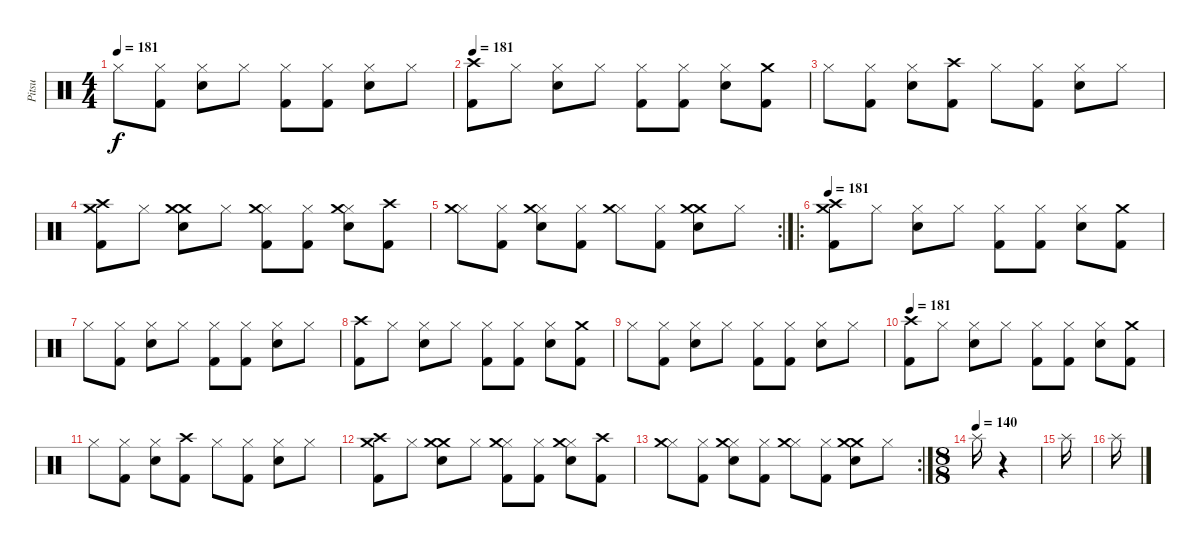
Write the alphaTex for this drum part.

\track ("Pitsu" "Pitsu") {instrument percussion}
\staff {score}
\articulation defaults
\ts (4 4)
\tempo 181
\clef neutral
\ks c "Hi-Hat (closed)".8{dy f}
("Hi-Hat (closed)" "Kick (hit) 2").8 ("Hi-Hat (closed)" "Electric Snare (hit)").8 "Hi-Hat (closed)".8 ("Hi-Hat (closed)" "Kick (hit) 2").8 ("Hi-Hat (closed)" "Kick (hit) 2").8 ("Hi-Hat (closed)" "Electric Snare (hit)").8 "Hi-Hat (closed)".8 |
\tempo 181
("Crash high (hit)" "Kick (hit) 2").8 "Hi-Hat (closed)".8 ("Hi-Hat (closed)" "Electric Snare (hit)").8 "Hi-Hat (closed)".8 ("Hi-Hat (closed)" "Kick (hit) 2").8 ("Hi-Hat (closed)" "Kick (hit) 2").8 ("Hi-Hat (closed)" "Electric Snare (hit)").8 ("Crash medium (hit)" "Kick (hit) 2").8 |
"Hi-Hat (closed)".8 ("Hi-Hat (closed)" "Kick (hit) 2").8 ("Hi-Hat (closed)" "Electric Snare (hit)").8 ("Crash high (hit)" "Kick (hit) 2").8 "Hi-Hat (closed)".8 ("Hi-Hat (closed)" "Kick (hit) 2").8 ("Hi-Hat (closed)" "Electric Snare (hit)").8 "Hi-Hat (closed)".8 |
("Crash high (hit)" "Crash medium (hit)" "Kick (hit) 2").8 "Hi-Hat (closed)".8 ("Crash medium (hit)" "Crash medium (hit)" "Electric Snare (hit)").8 "Hi-Hat (closed)".8 ("Hi-Hat (closed)" "Crash medium (hit)" "Kick (hit) 2").8 ("Hi-Hat (closed)" "Kick (hit) 2").8 ("Hi-Hat (closed)" "Crash medium (hit)" "Electric Snare (hit)").8 ("Crash high (hit)" "Kick (hit) 2").8 |
\rc 2
("Hi-Hat (closed)" "Crash medium (hit)").8 ("Hi-Hat (closed)" "Kick (hit) 2").8 ("Hi-Hat (closed)" "Crash medium (hit)" "Electric Snare (hit)").8 ("Hi-Hat (closed)" "Kick (hit) 2").8 ("Hi-Hat (closed)" "Crash medium (hit)").8 ("Hi-Hat (closed)" "Kick (hit) 2").8 ("Crash medium (hit)" "Crash medium (hit)" "Electric Snare (hit)").8 "Hi-Hat (closed)".8 |
\ro
\tempo 181
("Crash high (hit)" "Crash medium (hit)" "Kick (hit) 2").8 "Hi-Hat (closed)".8 ("Hi-Hat (closed)" "Electric Snare (hit)").8 "Hi-Hat (closed)".8 ("Hi-Hat (closed)" "Kick (hit) 2").8 ("Hi-Hat (closed)" "Kick (hit) 2").8 ("Hi-Hat (closed)" "Electric Snare (hit)").8 ("Crash medium (hit)" "Kick (hit) 2").8 |
"Hi-Hat (closed)".8 ("Hi-Hat (closed)" "Kick (hit) 2").8 ("Hi-Hat (closed)" "Electric Snare (hit)").8 "Hi-Hat (closed)".8 ("Hi-Hat (closed)" "Kick (hit) 2").8 ("Hi-Hat (closed)" "Kick (hit) 2").8 ("Hi-Hat (closed)" "Electric Snare (hit)").8 "Hi-Hat (closed)".8 |
("Crash high (hit)" "Kick (hit) 2").8 "Hi-Hat (closed)".8 ("Hi-Hat (closed)" "Electric Snare (hit)").8 "Hi-Hat (closed)".8 ("Hi-Hat (closed)" "Kick (hit) 2").8 ("Hi-Hat (closed)" "Kick (hit) 2").8 ("Hi-Hat (closed)" "Electric Snare (hit)").8 ("Crash medium (hit)" "Kick (hit) 2").8 |
"Hi-Hat (closed)".8 ("Hi-Hat (closed)" "Kick (hit) 2").8 ("Hi-Hat (closed)" "Electric Snare (hit)").8 "Hi-Hat (closed)".8 ("Hi-Hat (closed)" "Kick (hit) 2").8 ("Hi-Hat (closed)" "Kick (hit) 2").8 ("Hi-Hat (closed)" "Electric Snare (hit)").8 "Hi-Hat (closed)".8 |
\tempo 181
("Crash high (hit)" "Kick (hit) 2").8 "Hi-Hat (closed)".8 ("Hi-Hat (closed)" "Electric Snare (hit)").8 "Hi-Hat (closed)".8 ("Hi-Hat (closed)" "Kick (hit) 2").8 ("Hi-Hat (closed)" "Kick (hit) 2").8 ("Hi-Hat (closed)" "Electric Snare (hit)").8 ("Crash medium (hit)" "Kick (hit) 2").8 |
"Hi-Hat (closed)".8 ("Hi-Hat (closed)" "Kick (hit) 2").8 ("Hi-Hat (closed)" "Electric Snare (hit)").8 ("Crash high (hit)" "Kick (hit) 2").8 "Hi-Hat (closed)".8 ("Hi-Hat (closed)" "Kick (hit) 2").8 ("Hi-Hat (closed)" "Electric Snare (hit)").8 "Hi-Hat (closed)".8 |
("Crash high (hit)" "Crash medium (hit)" "Kick (hit) 2").8 "Hi-Hat (closed)".8 ("Crash medium (hit)" "Crash medium (hit)" "Electric Snare (hit)").8 "Hi-Hat (closed)".8 ("Hi-Hat (closed)" "Crash medium (hit)" "Kick (hit) 2").8 ("Hi-Hat (closed)" "Kick (hit) 2").8 ("Hi-Hat (closed)" "Crash medium (hit)" "Electric Snare (hit)").8 ("Crash high (hit)" "Kick (hit) 2").8 |
\rc 2
("Hi-Hat (closed)" "Crash medium (hit)").8 ("Hi-Hat (closed)" "Kick (hit) 2").8 ("Hi-Hat (closed)" "Crash medium (hit)" "Electric Snare (hit)").8 ("Hi-Hat (closed)" "Kick (hit) 2").8 ("Hi-Hat (closed)" "Crash medium (hit)").8 ("Hi-Hat (closed)" "Kick (hit) 2").8 ("Crash medium (hit)" "Crash medium (hit)" "Electric Snare (hit)").8 "Hi-Hat (closed)".8 |
\ts (8 8)
\tempo (140)
"Splash (hit)".16 r.4 |
"Splash (hit)".16 |
"Splash (hit)".16
